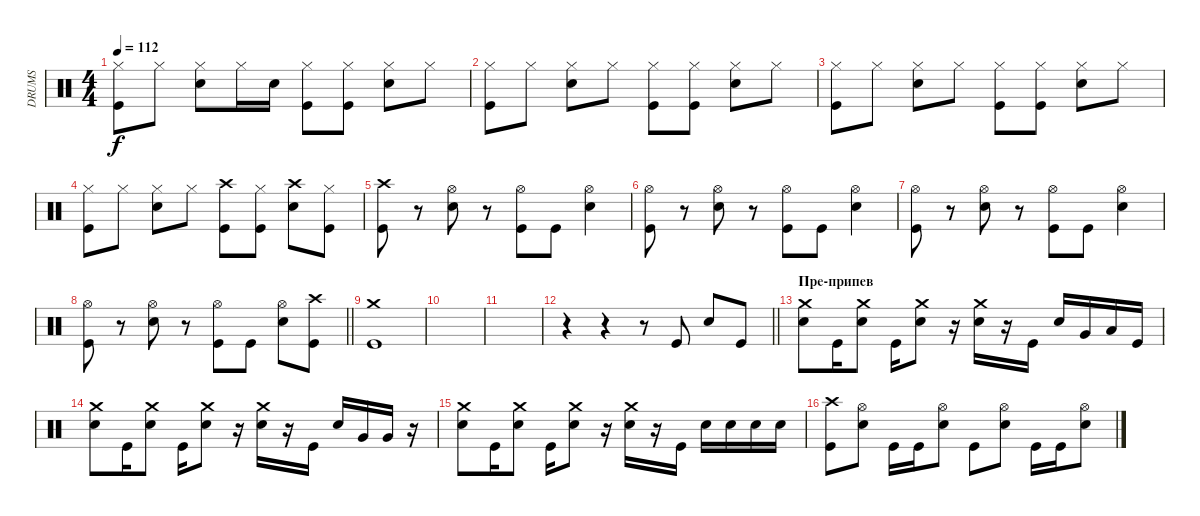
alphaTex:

\track ("DRUMS" "DRUMS") {instrument percussion}
\staff {score}
\articulation defaults
\ts (4 4)
\tempo 112
\clef neutral
\ks c
("Hi-Hat (closed)" "Kick (hit)").8{dy f volume 13} "Hi-Hat (closed)".8 ("Hi-Hat (closed)" "Snare (hit) 2").8 "Hi-Hat (closed)".16 "Snare (hit) 2".16 ("Hi-Hat (closed)" "Kick (hit)").8 ("Hi-Hat (closed)" "Kick (hit)").8 ("Hi-Hat (closed)" "Snare (hit) 2").8 "Hi-Hat (closed)".8 |
("Hi-Hat (closed)" "Kick (hit)").8{volume 13} "Hi-Hat (closed)".8 ("Hi-Hat (closed)" "Snare (hit) 2").8 "Hi-Hat (closed)".8 ("Hi-Hat (closed)" "Kick (hit)").8 ("Hi-Hat (closed)" "Kick (hit)").8 ("Hi-Hat (closed)" "Snare (hit) 2").8 "Hi-Hat (closed)".8 |
("Hi-Hat (closed)" "Kick (hit)").8{volume 13} "Hi-Hat (closed)".8 ("Hi-Hat (closed)" "Snare (hit) 2").8 "Hi-Hat (closed)".8 ("Hi-Hat (closed)" "Kick (hit)").8 ("Hi-Hat (closed)" "Kick (hit)").8 ("Hi-Hat (closed)" "Snare (hit) 2").8 "Hi-Hat (closed)".8 |
("Hi-Hat (closed)" "Kick (hit)").8{volume 13} "Hi-Hat (closed)".8 ("Hi-Hat (closed)" "Snare (hit) 2").8 "Hi-Hat (closed)".8 ("Crash high (hit)" "Kick (hit)").8 ("Hi-Hat (closed)" "Kick (hit)").8 ("Crash high (hit)" "Snare (hit) 2").8 ("Hi-Hat (closed)" "Kick (hit)").8 |
("Crash high (hit)" "Kick (hit)").8{volume 13} r.8 ("Hi-Hat (open)" "Snare (hit) 2").8 r.8 ("Hi-Hat (open)" "Kick (hit)").8 "Kick (hit)".8 ("Hi-Hat (open)" "Snare (hit) 2").4 |
("Hi-Hat (open)" "Kick (hit)").8{volume 13} r.8 ("Hi-Hat (open)" "Snare (hit) 2").8 r.8 ("Hi-Hat (open)" "Kick (hit)").8 "Kick (hit)".8 ("Hi-Hat (open)" "Snare (hit) 2").4 |
("Hi-Hat (open)" "Kick (hit)").8{volume 13} r.8 ("Hi-Hat (open)" "Snare (hit) 2").8 r.8 ("Hi-Hat (open)" "Kick (hit)").8 "Kick (hit)".8 ("Hi-Hat (open)" "Snare (hit) 2").4 |
\barLineRight lightlight
("Hi-Hat (open)" "Kick (hit)").8{volume 13} r.8 ("Hi-Hat (open)" "Snare (hit) 2").8 r.8 ("Hi-Hat (open)" "Kick (hit)").8 "Kick (hit)".8 ("Hi-Hat (open)" "Snare (hit) 2").8 ("Crash high (hit)" "Kick (hit)").8 |
("Crash medium (hit)" "Kick (hit)").1 |
|
|
\barLineRight lightlight
r.4 r.4 r.8 "Kick (hit)".8 "Snare (hit) 2".8 "Kick (hit)".8 |
\section ("" "Пре-припев")
("Crash medium (hit)" "Snare (hit) 2").8 "Kick (hit)".16 ("Crash medium (hit)" "Snare (hit) 2").8 "Kick (hit)".16 ("Crash medium (hit)" "Snare (hit) 2").8 r.16 ("Crash medium (hit)" "Snare (hit) 2").16 r.16 "Kick (hit)".16 "Snare (hit) 2".16 "Very Low Tom (hit)".16 "Low Floor Tom (hit)".16 "Kick (hit)".16 |
("Crash medium (hit)" "Snare (hit) 2").8 "Kick (hit)".16 ("Crash medium (hit)" "Snare (hit) 2").8 "Kick (hit)".16 ("Crash medium (hit)" "Snare (hit) 2").8 r.16 ("Crash medium (hit)" "Snare (hit) 2").16 r.16 "Kick (hit)".16 "Snare (hit) 2".16 "Very Low Tom (hit)".16 "Very Low Tom (hit)".16 r.16 |
("Crash medium (hit)" "Snare (hit) 2").8 "Kick (hit)".16 ("Crash medium (hit)" "Snare (hit) 2").8 "Kick (hit)".16 ("Crash medium (hit)" "Snare (hit) 2").8 r.16 ("Crash medium (hit)" "Snare (hit) 2").16 r.16 "Kick (hit)".16 "Snare (hit) 2".16 "Snare (hit) 2".16 "Snare (hit) 2".16 "Snare (hit) 2".16 |
("Crash high (hit)" "Kick (hit)").8 ("Hi-Hat (open)" "Snare (hit) 2").8 "Kick (hit)".16 "Kick (hit)".16 ("Hi-Hat (open)" "Snare (hit) 2").8 "Kick (hit)".8 ("Hi-Hat (open)" "Snare (hit) 2").8 "Kick (hit)".16 "Kick (hit)".16 ("Hi-Hat (open)" "Snare (hit) 2").8
